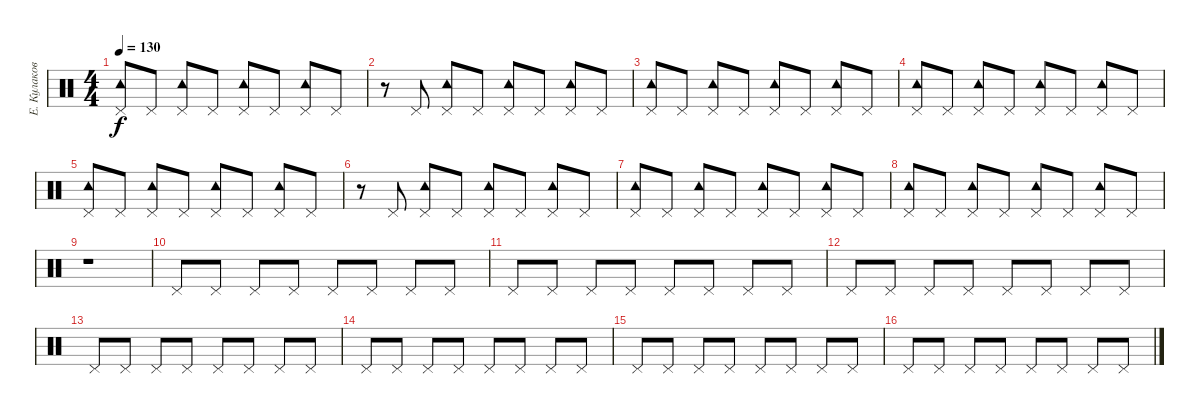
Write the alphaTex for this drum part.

\track ("Е. Кулаков Hi-Hat" "Е. Кулаков") {instrument percussion}
\staff {score}
\articulation defaults
\ts (4 4)
\tempo 130
\clef neutral
\ks c
("Pedal Hi-Hat (hit)" "Tambourine (hit)").8{dy f} "Pedal Hi-Hat (hit)".8 ("Pedal Hi-Hat (hit)" "Tambourine (hit)").8 "Pedal Hi-Hat (hit)".8 ("Pedal Hi-Hat (hit)" "Tambourine (hit)").8 "Pedal Hi-Hat (hit)".8 ("Pedal Hi-Hat (hit)" "Tambourine (hit)").8 "Pedal Hi-Hat (hit)".8 |
r.8 "Pedal Hi-Hat (hit)".8 ("Pedal Hi-Hat (hit)" "Tambourine (hit)").8 "Pedal Hi-Hat (hit)".8 ("Pedal Hi-Hat (hit)" "Tambourine (hit)").8 "Pedal Hi-Hat (hit)".8 ("Pedal Hi-Hat (hit)" "Tambourine (hit)").8 "Pedal Hi-Hat (hit)".8 |
("Pedal Hi-Hat (hit)" "Tambourine (hit)").8 "Pedal Hi-Hat (hit)".8 ("Pedal Hi-Hat (hit)" "Tambourine (hit)").8 "Pedal Hi-Hat (hit)".8 ("Pedal Hi-Hat (hit)" "Tambourine (hit)").8 "Pedal Hi-Hat (hit)".8 ("Pedal Hi-Hat (hit)" "Tambourine (hit)").8 "Pedal Hi-Hat (hit)".8 |
("Pedal Hi-Hat (hit)" "Tambourine (hit)").8 "Pedal Hi-Hat (hit)".8 ("Pedal Hi-Hat (hit)" "Tambourine (hit)").8 "Pedal Hi-Hat (hit)".8 ("Pedal Hi-Hat (hit)" "Tambourine (hit)").8 "Pedal Hi-Hat (hit)".8 ("Pedal Hi-Hat (hit)" "Tambourine (hit)").8 "Pedal Hi-Hat (hit)".8 |
("Pedal Hi-Hat (hit)" "Tambourine (hit)").8 "Pedal Hi-Hat (hit)".8 ("Pedal Hi-Hat (hit)" "Tambourine (hit)").8 "Pedal Hi-Hat (hit)".8 ("Pedal Hi-Hat (hit)" "Tambourine (hit)").8 "Pedal Hi-Hat (hit)".8 ("Pedal Hi-Hat (hit)" "Tambourine (hit)").8 "Pedal Hi-Hat (hit)".8 |
r.8 "Pedal Hi-Hat (hit)".8 ("Pedal Hi-Hat (hit)" "Tambourine (hit)").8 "Pedal Hi-Hat (hit)".8 ("Pedal Hi-Hat (hit)" "Tambourine (hit)").8 "Pedal Hi-Hat (hit)".8 ("Pedal Hi-Hat (hit)" "Tambourine (hit)").8 "Pedal Hi-Hat (hit)".8 |
("Pedal Hi-Hat (hit)" "Tambourine (hit)").8 "Pedal Hi-Hat (hit)".8 ("Pedal Hi-Hat (hit)" "Tambourine (hit)").8 "Pedal Hi-Hat (hit)".8 ("Pedal Hi-Hat (hit)" "Tambourine (hit)").8 "Pedal Hi-Hat (hit)".8 ("Pedal Hi-Hat (hit)" "Tambourine (hit)").8 "Pedal Hi-Hat (hit)".8 |
("Pedal Hi-Hat (hit)" "Tambourine (hit)").8 "Pedal Hi-Hat (hit)".8 ("Pedal Hi-Hat (hit)" "Tambourine (hit)").8 "Pedal Hi-Hat (hit)".8 ("Pedal Hi-Hat (hit)" "Tambourine (hit)").8 "Pedal Hi-Hat (hit)".8 ("Pedal Hi-Hat (hit)" "Tambourine (hit)").8 "Pedal Hi-Hat (hit)".8 |
r.1 |
"Pedal Hi-Hat (hit)".8 "Pedal Hi-Hat (hit)".8 "Pedal Hi-Hat (hit)".8 "Pedal Hi-Hat (hit)".8 "Pedal Hi-Hat (hit)".8 "Pedal Hi-Hat (hit)".8 "Pedal Hi-Hat (hit)".8 "Pedal Hi-Hat (hit)".8 |
"Pedal Hi-Hat (hit)".8 "Pedal Hi-Hat (hit)".8 "Pedal Hi-Hat (hit)".8 "Pedal Hi-Hat (hit)".8 "Pedal Hi-Hat (hit)".8 "Pedal Hi-Hat (hit)".8 "Pedal Hi-Hat (hit)".8 "Pedal Hi-Hat (hit)".8 |
"Pedal Hi-Hat (hit)".8 "Pedal Hi-Hat (hit)".8 "Pedal Hi-Hat (hit)".8 "Pedal Hi-Hat (hit)".8 "Pedal Hi-Hat (hit)".8 "Pedal Hi-Hat (hit)".8 "Pedal Hi-Hat (hit)".8 "Pedal Hi-Hat (hit)".8 |
"Pedal Hi-Hat (hit)".8 "Pedal Hi-Hat (hit)".8 "Pedal Hi-Hat (hit)".8 "Pedal Hi-Hat (hit)".8 "Pedal Hi-Hat (hit)".8 "Pedal Hi-Hat (hit)".8 "Pedal Hi-Hat (hit)".8 "Pedal Hi-Hat (hit)".8 |
"Pedal Hi-Hat (hit)".8 "Pedal Hi-Hat (hit)".8 "Pedal Hi-Hat (hit)".8 "Pedal Hi-Hat (hit)".8 "Pedal Hi-Hat (hit)".8 "Pedal Hi-Hat (hit)".8 "Pedal Hi-Hat (hit)".8 "Pedal Hi-Hat (hit)".8 |
"Pedal Hi-Hat (hit)".8 "Pedal Hi-Hat (hit)".8 "Pedal Hi-Hat (hit)".8 "Pedal Hi-Hat (hit)".8 "Pedal Hi-Hat (hit)".8 "Pedal Hi-Hat (hit)".8 "Pedal Hi-Hat (hit)".8 "Pedal Hi-Hat (hit)".8 |
"Pedal Hi-Hat (hit)".8 "Pedal Hi-Hat (hit)".8 "Pedal Hi-Hat (hit)".8 "Pedal Hi-Hat (hit)".8 "Pedal Hi-Hat (hit)".8 "Pedal Hi-Hat (hit)".8 "Pedal Hi-Hat (hit)".8 "Pedal Hi-Hat (hit)".8
